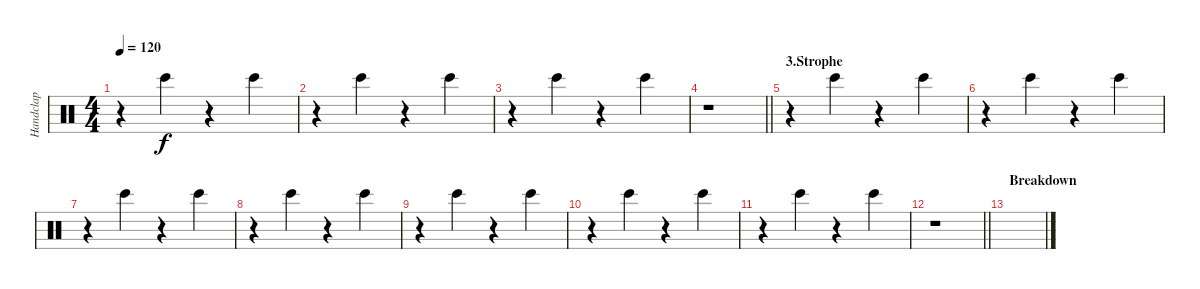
\track ("Handclap" "Handclap") {instrument percussion}
\staff {score}
\articulation defaults
\ts (4 4)
\tempo 120
\clef neutral
\ks c
r.4{dy f} "Bongo High (hit)".4 r.4 "Bongo High (hit)".4 |
r.4 "Bongo High (hit)".4 r.4 "Bongo High (hit)".4 |
r.4 "Bongo High (hit)".4 r.4 "Bongo High (hit)".4 |
\barLineRight lightlight
r.1 |
\section ("" "3.Strophe")
r.4 "Bongo High (hit)".4 r.4 "Bongo High (hit)".4 |
r.4 "Bongo High (hit)".4 r.4 "Bongo High (hit)".4 |
r.4 "Bongo High (hit)".4 r.4 "Bongo High (hit)".4 |
r.4 "Bongo High (hit)".4 r.4 "Bongo High (hit)".4 |
r.4 "Bongo High (hit)".4 r.4 "Bongo High (hit)".4 |
r.4 "Bongo High (hit)".4 r.4 "Bongo High (hit)".4 |
r.4 "Bongo High (hit)".4 r.4 "Bongo High (hit)".4 |
\barLineRight lightlight
r.1 |
\section ("" "Breakdown")
